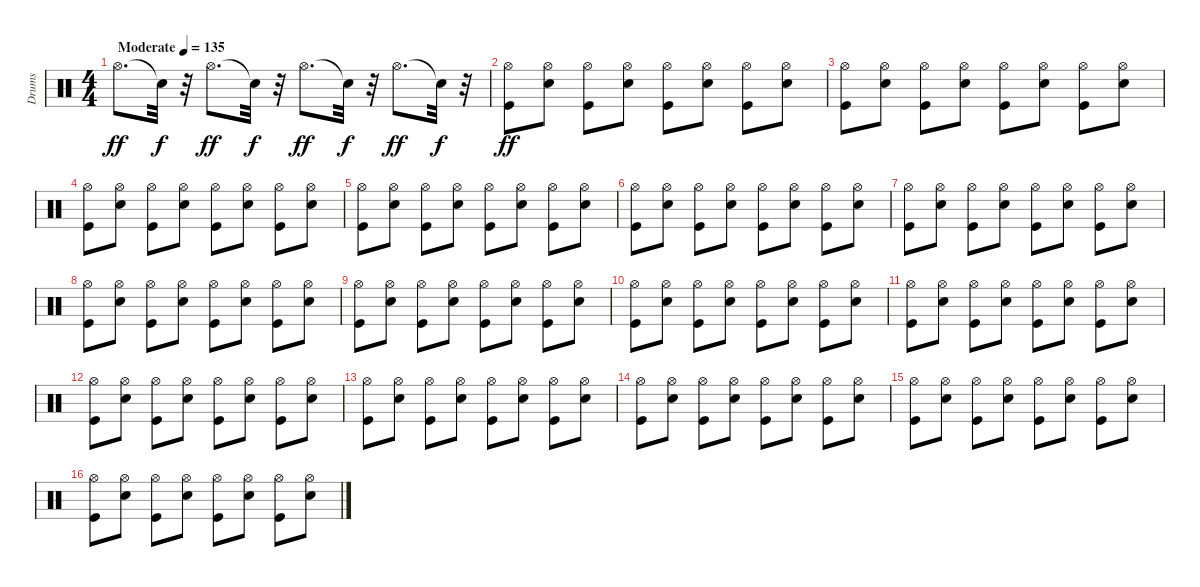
\track ("Drums" "Drums") {instrument percussion}
\staff {score}
\articulation defaults
\ts (4 4)
\tempo (135 "Moderate")
\clef neutral
\ks c "Hi-Hat (open)".8{d dy ff} "Snare (hit)"{t}.32{dy f}
r.32 "Hi-Hat (open)".8{d dy ff} "Snare (hit)"{t}.32{dy f} r.32 "Hi-Hat (open)".8{d dy ff} "Snare (hit)"{t}.32{dy f} r.32 "Hi-Hat (open)".8{d dy ff} "Snare (hit)"{t}.32{dy f} r.32 |
("Kick (hit)" "Hi-Hat (open)").8{dy ff} ("Electric Snare (hit)" "Hi-Hat (open)").8 ("Kick (hit)" "Hi-Hat (open)").8 ("Electric Snare (hit)" "Hi-Hat (open)").8 ("Kick (hit)" "Hi-Hat (open)").8 ("Electric Snare (hit)" "Hi-Hat (open)").8 ("Kick (hit)" "Hi-Hat (open)").8 ("Electric Snare (hit)" "Hi-Hat (open)").8 |
("Kick (hit)" "Hi-Hat (open)").8 ("Electric Snare (hit)" "Hi-Hat (open)").8 ("Kick (hit)" "Hi-Hat (open)").8 ("Electric Snare (hit)" "Hi-Hat (open)").8 ("Kick (hit)" "Hi-Hat (open)").8 ("Electric Snare (hit)" "Hi-Hat (open)").8 ("Kick (hit)" "Hi-Hat (open)").8 ("Electric Snare (hit)" "Hi-Hat (open)").8 |
("Kick (hit)" "Hi-Hat (open)").8 ("Electric Snare (hit)" "Hi-Hat (open)").8 ("Kick (hit)" "Hi-Hat (open)").8 ("Electric Snare (hit)" "Hi-Hat (open)").8 ("Kick (hit)" "Hi-Hat (open)").8 ("Electric Snare (hit)" "Hi-Hat (open)").8 ("Kick (hit)" "Hi-Hat (open)").8 ("Electric Snare (hit)" "Hi-Hat (open)").8 |
("Kick (hit)" "Hi-Hat (open)").8 ("Electric Snare (hit)" "Hi-Hat (open)").8 ("Kick (hit)" "Hi-Hat (open)").8 ("Electric Snare (hit)" "Hi-Hat (open)").8 ("Kick (hit)" "Hi-Hat (open)").8 ("Electric Snare (hit)" "Hi-Hat (open)").8 ("Kick (hit)" "Hi-Hat (open)").8 ("Electric Snare (hit)" "Hi-Hat (open)").8 |
("Kick (hit)" "Hi-Hat (open)").8 ("Electric Snare (hit)" "Hi-Hat (open)").8 ("Kick (hit)" "Hi-Hat (open)").8 ("Electric Snare (hit)" "Hi-Hat (open)").8 ("Kick (hit)" "Hi-Hat (open)").8 ("Electric Snare (hit)" "Hi-Hat (open)").8 ("Kick (hit)" "Hi-Hat (open)").8 ("Electric Snare (hit)" "Hi-Hat (open)").8 |
("Kick (hit)" "Hi-Hat (open)").8 ("Electric Snare (hit)" "Hi-Hat (open)").8 ("Kick (hit)" "Hi-Hat (open)").8 ("Electric Snare (hit)" "Hi-Hat (open)").8 ("Kick (hit)" "Hi-Hat (open)").8 ("Electric Snare (hit)" "Hi-Hat (open)").8 ("Kick (hit)" "Hi-Hat (open)").8 ("Electric Snare (hit)" "Hi-Hat (open)").8 |
("Kick (hit)" "Hi-Hat (open)").8 ("Electric Snare (hit)" "Hi-Hat (open)").8 ("Kick (hit)" "Hi-Hat (open)").8 ("Electric Snare (hit)" "Hi-Hat (open)").8 ("Kick (hit)" "Hi-Hat (open)").8 ("Electric Snare (hit)" "Hi-Hat (open)").8 ("Kick (hit)" "Hi-Hat (open)").8 ("Electric Snare (hit)" "Hi-Hat (open)").8 |
("Kick (hit)" "Hi-Hat (open)").8 ("Electric Snare (hit)" "Hi-Hat (open)").8 ("Kick (hit)" "Hi-Hat (open)").8 ("Electric Snare (hit)" "Hi-Hat (open)").8 ("Kick (hit)" "Hi-Hat (open)").8 ("Electric Snare (hit)" "Hi-Hat (open)").8 ("Kick (hit)" "Hi-Hat (open)").8 ("Electric Snare (hit)" "Hi-Hat (open)").8 |
("Kick (hit)" "Hi-Hat (open)").8 ("Electric Snare (hit)" "Hi-Hat (open)").8 ("Kick (hit)" "Hi-Hat (open)").8 ("Electric Snare (hit)" "Hi-Hat (open)").8 ("Kick (hit)" "Hi-Hat (open)").8 ("Electric Snare (hit)" "Hi-Hat (open)").8 ("Kick (hit)" "Hi-Hat (open)").8 ("Electric Snare (hit)" "Hi-Hat (open)").8 |
("Kick (hit)" "Hi-Hat (open)").8 ("Electric Snare (hit)" "Hi-Hat (open)").8 ("Kick (hit)" "Hi-Hat (open)").8 ("Electric Snare (hit)" "Hi-Hat (open)").8 ("Kick (hit)" "Hi-Hat (open)").8 ("Electric Snare (hit)" "Hi-Hat (open)").8 ("Kick (hit)" "Hi-Hat (open)").8 ("Electric Snare (hit)" "Hi-Hat (open)").8 |
("Kick (hit)" "Hi-Hat (open)").8 ("Electric Snare (hit)" "Hi-Hat (open)").8 ("Kick (hit)" "Hi-Hat (open)").8 ("Electric Snare (hit)" "Hi-Hat (open)").8 ("Kick (hit)" "Hi-Hat (open)").8 ("Electric Snare (hit)" "Hi-Hat (open)").8 ("Kick (hit)" "Hi-Hat (open)").8 ("Electric Snare (hit)" "Hi-Hat (open)").8 |
("Kick (hit)" "Hi-Hat (open)").8 ("Electric Snare (hit)" "Hi-Hat (open)").8 ("Kick (hit)" "Hi-Hat (open)").8 ("Electric Snare (hit)" "Hi-Hat (open)").8 ("Kick (hit)" "Hi-Hat (open)").8 ("Electric Snare (hit)" "Hi-Hat (open)").8 ("Kick (hit)" "Hi-Hat (open)").8 ("Electric Snare (hit)" "Hi-Hat (open)").8 |
("Kick (hit)" "Hi-Hat (open)").8 ("Electric Snare (hit)" "Hi-Hat (open)").8 ("Kick (hit)" "Hi-Hat (open)").8 ("Electric Snare (hit)" "Hi-Hat (open)").8 ("Kick (hit)" "Hi-Hat (open)").8 ("Electric Snare (hit)" "Hi-Hat (open)").8 ("Kick (hit)" "Hi-Hat (open)").8 ("Electric Snare (hit)" "Hi-Hat (open)").8 |
("Kick (hit)" "Hi-Hat (open)").8 ("Electric Snare (hit)" "Hi-Hat (open)").8 ("Kick (hit)" "Hi-Hat (open)").8 ("Electric Snare (hit)" "Hi-Hat (open)").8 ("Kick (hit)" "Hi-Hat (open)").8 ("Electric Snare (hit)" "Hi-Hat (open)").8 ("Kick (hit)" "Hi-Hat (open)").8 ("Electric Snare (hit)" "Hi-Hat (open)").8 |
("Kick (hit)" "Hi-Hat (open)").8 ("Electric Snare (hit)" "Hi-Hat (open)").8 ("Kick (hit)" "Hi-Hat (open)").8 ("Electric Snare (hit)" "Hi-Hat (open)").8 ("Kick (hit)" "Hi-Hat (open)").8 ("Electric Snare (hit)" "Hi-Hat (open)").8 ("Kick (hit)" "Hi-Hat (open)").8 ("Electric Snare (hit)" "Hi-Hat (open)").8
